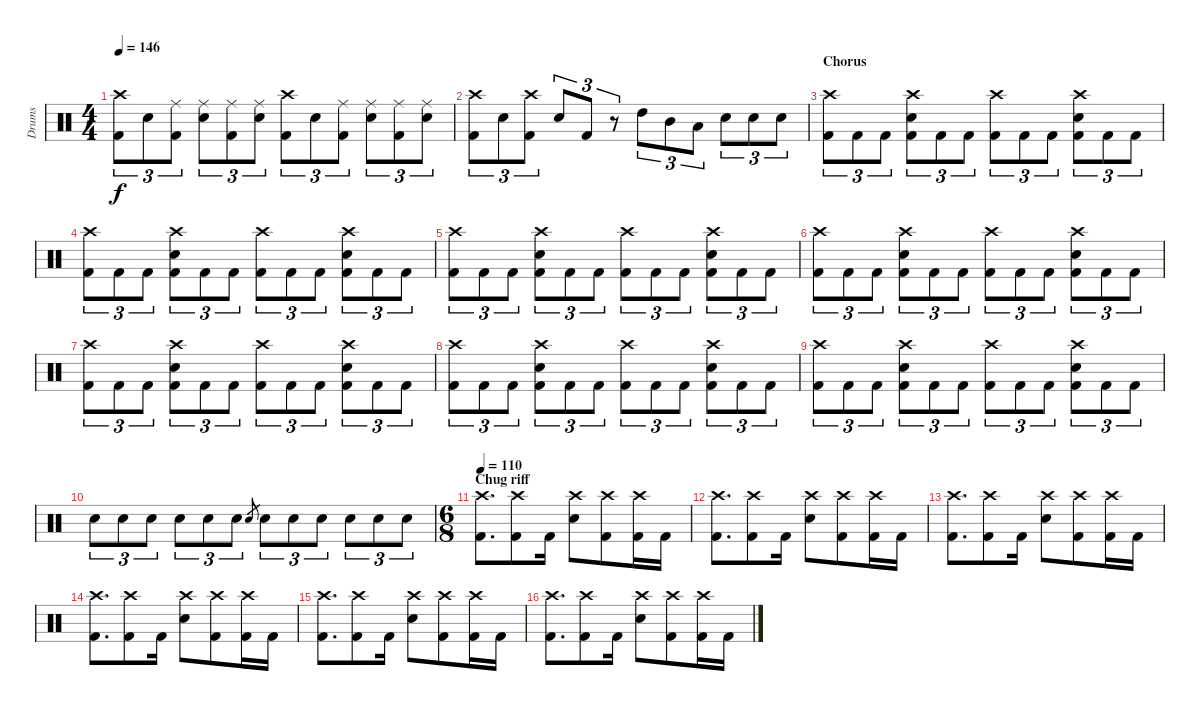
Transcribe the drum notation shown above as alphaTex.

\track ("Drums" "Drums") {instrument percussion}
\staff {score}
\articulation defaults
\ts (4 4)
\tempo 146
\clef neutral
\ks c
("Crash high (hit)" "Kick (hit) 2").8{tu (3 2) dy f} "Electric Snare (hit)".8{tu (3 2)} ("Ride (middle)" "Kick (hit) 2").8{tu (3 2)} ("Ride (middle)" "Electric Snare (hit)").8{tu (3 2)} ("Ride (middle)" "Kick (hit) 2").8{tu (3 2)} ("Ride (middle)" "Electric Snare (hit)").8{tu (3 2)} ("Crash high (hit)" "Kick (hit) 2").8{tu (3 2)} "Electric Snare (hit)".8{tu (3 2)} ("Ride (middle)" "Kick (hit) 2").8{tu (3 2)} ("Ride (middle)" "Electric Snare (hit)").8{tu (3 2)} ("Ride (middle)" "Kick (hit) 2").8{tu (3 2)} ("Ride (middle)" "Electric Snare (hit)").8{tu (3 2)} |
("Crash high (hit)" "Kick (hit) 2").8{tu (3 2)} "Electric Snare (hit)".8{tu (3 2)} ("Crash high (hit)" "Kick (hit) 2").8{tu (3 2)} "Electric Snare (hit)".8{tu (3 2)} "Kick (hit) 2".8{tu (3 2)} r.8{tu (3 2)} "High Tom (hit)".8{tu (3 2)} "Mid Tom (hit)".8{tu (3 2)} "Low Tom (hit)".8{tu (3 2)} "Electric Snare (hit)".8{tu (3 2)} "Electric Snare (hit)".8{tu (3 2)} "Electric Snare (hit)".8{tu (3 2)} |
\section ("" "Chorus")
("Crash high (hit)" "Kick (hit) 2").8{tu (3 2)} "Kick (hit) 2".8{tu (3 2)} "Kick (hit) 2".8{tu (3 2)} ("Crash high (hit)" "Electric Snare (hit)" "Kick (hit) 2").8{tu (3 2)} "Kick (hit) 2".8{tu (3 2)} "Kick (hit) 2".8{tu (3 2)} ("Crash high (hit)" "Kick (hit) 2").8{tu (3 2)} "Kick (hit) 2".8{tu (3 2)} "Kick (hit) 2".8{tu (3 2)} ("Crash high (hit)" "Electric Snare (hit)" "Kick (hit) 2").8{tu (3 2)} "Kick (hit) 2".8{tu (3 2)} "Kick (hit) 2".8{tu (3 2)} |
("Crash high (hit)" "Kick (hit) 2").8{tu (3 2)} "Kick (hit) 2".8{tu (3 2)} "Kick (hit) 2".8{tu (3 2)} ("Crash high (hit)" "Electric Snare (hit)" "Kick (hit) 2").8{tu (3 2)} "Kick (hit) 2".8{tu (3 2)} "Kick (hit) 2".8{tu (3 2)} ("Crash high (hit)" "Kick (hit) 2").8{tu (3 2)} "Kick (hit) 2".8{tu (3 2)} "Kick (hit) 2".8{tu (3 2)} ("Crash high (hit)" "Electric Snare (hit)" "Kick (hit) 2").8{tu (3 2)} "Kick (hit) 2".8{tu (3 2)} "Kick (hit) 2".8{tu (3 2)} |
("Crash high (hit)" "Kick (hit) 2").8{tu (3 2)} "Kick (hit) 2".8{tu (3 2)} "Kick (hit) 2".8{tu (3 2)} ("Crash high (hit)" "Electric Snare (hit)" "Kick (hit) 2").8{tu (3 2)} "Kick (hit) 2".8{tu (3 2)} "Kick (hit) 2".8{tu (3 2)} ("Crash high (hit)" "Kick (hit) 2").8{tu (3 2)} "Kick (hit) 2".8{tu (3 2)} "Kick (hit) 2".8{tu (3 2)} ("Crash high (hit)" "Electric Snare (hit)" "Kick (hit) 2").8{tu (3 2)} "Kick (hit) 2".8{tu (3 2)} "Kick (hit) 2".8{tu (3 2)} |
("Crash high (hit)" "Kick (hit) 2").8{tu (3 2)} "Kick (hit) 2".8{tu (3 2)} "Kick (hit) 2".8{tu (3 2)} ("Crash high (hit)" "Electric Snare (hit)" "Kick (hit) 2").8{tu (3 2)} "Kick (hit) 2".8{tu (3 2)} "Kick (hit) 2".8{tu (3 2)} ("Crash high (hit)" "Kick (hit) 2").8{tu (3 2)} "Kick (hit) 2".8{tu (3 2)} "Kick (hit) 2".8{tu (3 2)} ("Crash high (hit)" "Electric Snare (hit)" "Kick (hit) 2").8{tu (3 2)} "Kick (hit) 2".8{tu (3 2)} "Kick (hit) 2".8{tu (3 2)} |
("Crash high (hit)" "Kick (hit) 2").8{tu (3 2)} "Kick (hit) 2".8{tu (3 2)} "Kick (hit) 2".8{tu (3 2)} ("Crash high (hit)" "Electric Snare (hit)" "Kick (hit) 2").8{tu (3 2)} "Kick (hit) 2".8{tu (3 2)} "Kick (hit) 2".8{tu (3 2)} ("Crash high (hit)" "Kick (hit) 2").8{tu (3 2)} "Kick (hit) 2".8{tu (3 2)} "Kick (hit) 2".8{tu (3 2)} ("Crash high (hit)" "Electric Snare (hit)" "Kick (hit) 2").8{tu (3 2)} "Kick (hit) 2".8{tu (3 2)} "Kick (hit) 2".8{tu (3 2)} |
("Crash high (hit)" "Kick (hit) 2").8{tu (3 2)} "Kick (hit) 2".8{tu (3 2)} "Kick (hit) 2".8{tu (3 2)} ("Crash high (hit)" "Electric Snare (hit)" "Kick (hit) 2").8{tu (3 2)} "Kick (hit) 2".8{tu (3 2)} "Kick (hit) 2".8{tu (3 2)} ("Crash high (hit)" "Kick (hit) 2").8{tu (3 2)} "Kick (hit) 2".8{tu (3 2)} "Kick (hit) 2".8{tu (3 2)} ("Crash high (hit)" "Electric Snare (hit)" "Kick (hit) 2").8{tu (3 2)} "Kick (hit) 2".8{tu (3 2)} "Kick (hit) 2".8{tu (3 2)} |
("Crash high (hit)" "Kick (hit) 2").8{tu (3 2)} "Kick (hit) 2".8{tu (3 2)} "Kick (hit) 2".8{tu (3 2)} ("Crash high (hit)" "Electric Snare (hit)" "Kick (hit) 2").8{tu (3 2)} "Kick (hit) 2".8{tu (3 2)} "Kick (hit) 2".8{tu (3 2)} ("Crash high (hit)" "Kick (hit) 2").8{tu (3 2)} "Kick (hit) 2".8{tu (3 2)} "Kick (hit) 2".8{tu (3 2)} ("Crash high (hit)" "Electric Snare (hit)" "Kick (hit) 2").8{tu (3 2)} "Kick (hit) 2".8{tu (3 2)} "Kick (hit) 2".8{tu (3 2)} |
"Electric Snare (hit)".8{tu (3 2)} "Electric Snare (hit)".8{tu (3 2)} "Electric Snare (hit)".8{tu (3 2)} "Electric Snare (hit)".8{tu (3 2)} "Electric Snare (hit)".8{tu (3 2)} "Electric Snare (hit)".8{tu (3 2)} "Electric Snare (hit)".8{gr} "Electric Snare (hit)".8{tu (3 2)} "Electric Snare (hit)".8{tu (3 2)} "Electric Snare (hit)".8{tu (3 2)} "Electric Snare (hit)".8{tu (3 2)} "Electric Snare (hit)".8{tu (3 2)} "Electric Snare (hit)".8{tu (3 2)} |
\ts (6 8)
\section ("" "Chug riff")
\tempo 110
("Crash high (hit)" "Kick (hit) 2").8{d} ("Crash high (hit)" "Kick (hit) 2").8 "Kick (hit) 2".16 ("Crash high (hit)" "Electric Snare (hit)").8 ("Crash high (hit)" "Kick (hit) 2").8 ("Crash high (hit)" "Kick (hit) 2").16 "Kick (hit) 2".16 |
("Crash high (hit)" "Kick (hit) 2").8{d} ("Crash high (hit)" "Kick (hit) 2").8 "Kick (hit) 2".16 ("Crash high (hit)" "Electric Snare (hit)").8 ("Crash high (hit)" "Kick (hit) 2").8 ("Crash high (hit)" "Kick (hit) 2").16 "Kick (hit) 2".16 |
("Crash high (hit)" "Kick (hit) 2").8{d} ("Crash high (hit)" "Kick (hit) 2").8 "Kick (hit) 2".16 ("Crash high (hit)" "Electric Snare (hit)").8 ("Crash high (hit)" "Kick (hit) 2").8 ("Crash high (hit)" "Kick (hit) 2").16 "Kick (hit) 2".16 |
("Crash high (hit)" "Kick (hit) 2").8{d} ("Crash high (hit)" "Kick (hit) 2").8 "Kick (hit) 2".16 ("Crash high (hit)" "Electric Snare (hit)").8 ("Crash high (hit)" "Kick (hit) 2").8 ("Crash high (hit)" "Kick (hit) 2").16 "Kick (hit) 2".16 |
("Crash high (hit)" "Kick (hit) 2").8{d} ("Crash high (hit)" "Kick (hit) 2").8 "Kick (hit) 2".16 ("Crash high (hit)" "Electric Snare (hit)").8 ("Crash high (hit)" "Kick (hit) 2").8 ("Crash high (hit)" "Kick (hit) 2").16 "Kick (hit) 2".16 |
("Crash high (hit)" "Kick (hit) 2").8{d} ("Crash high (hit)" "Kick (hit) 2").8 "Kick (hit) 2".16 ("Crash high (hit)" "Electric Snare (hit)").8 ("Crash high (hit)" "Kick (hit) 2").8 ("Crash high (hit)" "Kick (hit) 2").16 "Kick (hit) 2".16
